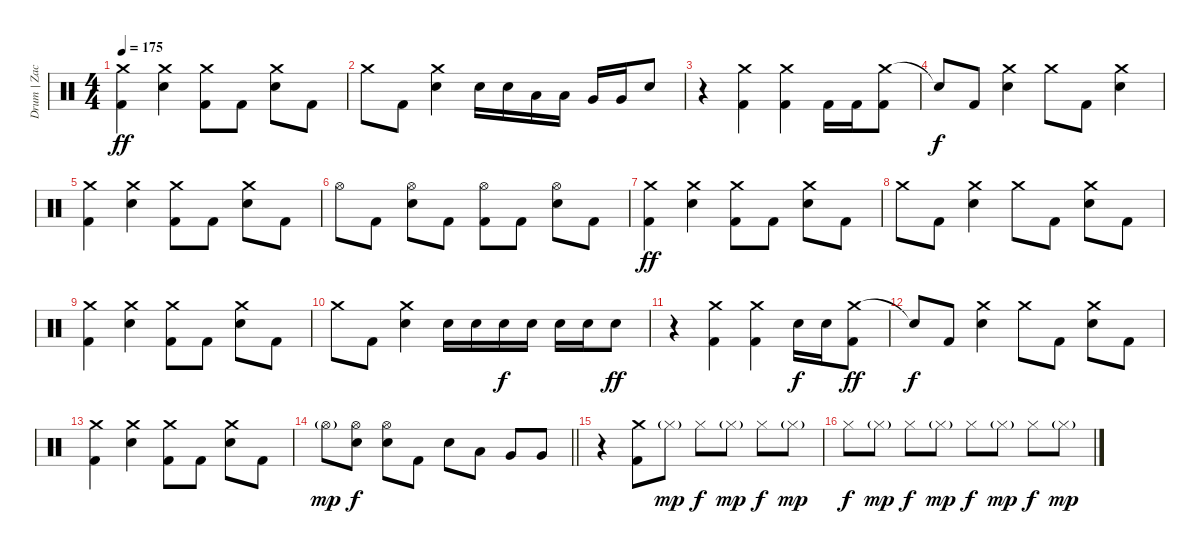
\track ("Drum | Zac" "Drum | Zac") {instrument percussion}
\staff {score}
\articulation defaults
\ts (4 4)
\tempo 175
\clef neutral
\ks c
("Crash medium (hit)" "Kick (hit) 2").4{dy ff} ("Crash medium (hit)" "Electric Snare (hit)").4 ("Crash medium (hit)" "Kick (hit) 2").8 "Kick (hit) 2".8 ("Crash medium (hit)" "Electric Snare (hit)").8 "Kick (hit) 2".8 |
"Crash medium (hit)".8 "Kick (hit) 2".8 ("Crash medium (hit)" "Electric Snare (hit)").4 "Electric Snare (hit)".16 "Electric Snare (hit)".16 "Low Floor Tom (hit)".16 "Low Floor Tom (hit)".16 "Very Low Tom (hit)".16 "Very Low Tom (hit)".16 "Electric Snare (hit)".8 |
r.4 ("Crash medium (hit)" "Kick (hit) 2").4 ("Crash medium (hit)" "Kick (hit) 2").4 "Kick (hit) 2".16 "Kick (hit) 2".16 ("Crash medium (hit)" "Kick (hit) 2").8 |
"Snare (hit)"{t}.8{dy f} "Kick (hit) 2".8 ("Crash medium (hit)" "Electric Snare (hit)").4 "Crash medium (hit)".8 "Kick (hit) 2".8 ("Crash medium (hit)" "Electric Snare (hit)").4 |
("Crash medium (hit)" "Kick (hit) 2").4 ("Crash medium (hit)" "Electric Snare (hit)").4 ("Crash medium (hit)" "Kick (hit) 2").8 "Kick (hit) 2".8 ("Crash medium (hit)" "Electric Snare (hit)").8 "Kick (hit) 2".8 |
"Hi-Hat (open)".8 "Kick (hit) 2".8 ("Hi-Hat (open)" "Electric Snare (hit)").8 "Kick (hit) 2".8 ("Hi-Hat (open)" "Kick (hit) 2").8 "Kick (hit) 2".8 ("Hi-Hat (open)" "Electric Snare (hit)").8 "Kick (hit) 2".8 |
("Crash medium (hit)" "Kick (hit) 2").4{dy ff} ("Crash medium (hit)" "Electric Snare (hit)").4 ("Crash medium (hit)" "Kick (hit) 2").8 "Kick (hit) 2".8 ("Crash medium (hit)" "Electric Snare (hit)").8 "Kick (hit) 2".8 |
"Crash medium (hit)".8 "Kick (hit) 2".8 ("Crash medium (hit)" "Electric Snare (hit)").4 "Crash medium (hit)".8 "Kick (hit) 2".8 ("Crash medium (hit)" "Electric Snare (hit)").8 "Kick (hit) 2".8 |
("Crash medium (hit)" "Kick (hit) 2").4 ("Crash medium (hit)" "Electric Snare (hit)").4 ("Crash medium (hit)" "Kick (hit) 2").8 "Kick (hit) 2".8 ("Crash medium (hit)" "Electric Snare (hit)").8 "Kick (hit) 2".8 |
"Crash medium (hit)".8 "Kick (hit) 2".8 ("Crash medium (hit)" "Electric Snare (hit)").4 "Electric Snare (hit)".16 "Electric Snare (hit)".16 "Electric Snare (hit)".16{dy f} "Electric Snare (hit)".16 "Electric Snare (hit)".16 "Electric Snare (hit)".16 "Electric Snare (hit)".8{dy ff} |
r.4 ("Crash medium (hit)" "Kick (hit) 2").4 ("Crash medium (hit)" "Kick (hit) 2").4 "Electric Snare (hit)".16{dy f} "Electric Snare (hit)".16 ("Crash medium (hit)" "Kick (hit) 2").8{dy ff} |
"Snare (hit)"{t}.8{dy f} "Kick (hit) 2".8 ("Crash medium (hit)" "Electric Snare (hit)").4 "Crash medium (hit)".8 "Kick (hit) 2".8 ("Crash medium (hit)" "Electric Snare (hit)").8 "Kick (hit) 2".8 |
("Crash medium (hit)" "Kick (hit) 2").4 ("Crash medium (hit)" "Electric Snare (hit)").4 ("Crash medium (hit)" "Kick (hit) 2").8 "Kick (hit) 2".8 ("Crash medium (hit)" "Electric Snare (hit)").8 "Kick (hit) 2".8 |
\barLineRight lightlight "Hi-Hat (open)"{g}.8{dy mp}
("Hi-Hat (open)" "Electric Snare (hit)").8{dy f} ("Hi-Hat (open)" "Electric Snare (hit)").8 "Kick (hit) 2".8 "Electric Snare (hit)".8 "Low Tom (hit)".8 "Very Low Tom (hit)".8 "Very Low Tom (hit)".8 |
\section ("" "")
r.4 ("Crash medium (hit)" "Kick (hit) 2").8 "Hi-Hat (closed)"{g}.8{dy mp} "Hi-Hat (closed)".8{dy f} "Hi-Hat (closed)"{g}.8{dy mp} "Hi-Hat (closed)".8{dy f} "Hi-Hat (closed)"{g}.8{dy mp} |
"Hi-Hat (closed)".8{dy f} "Hi-Hat (closed)"{g}.8{dy mp} "Hi-Hat (closed)".8{dy f} "Hi-Hat (closed)"{g}.8{dy mp} "Hi-Hat (closed)".8{dy f} "Hi-Hat (closed)"{g}.8{dy mp} "Hi-Hat (closed)".8{dy f} "Hi-Hat (closed)"{g}.8{dy mp}
